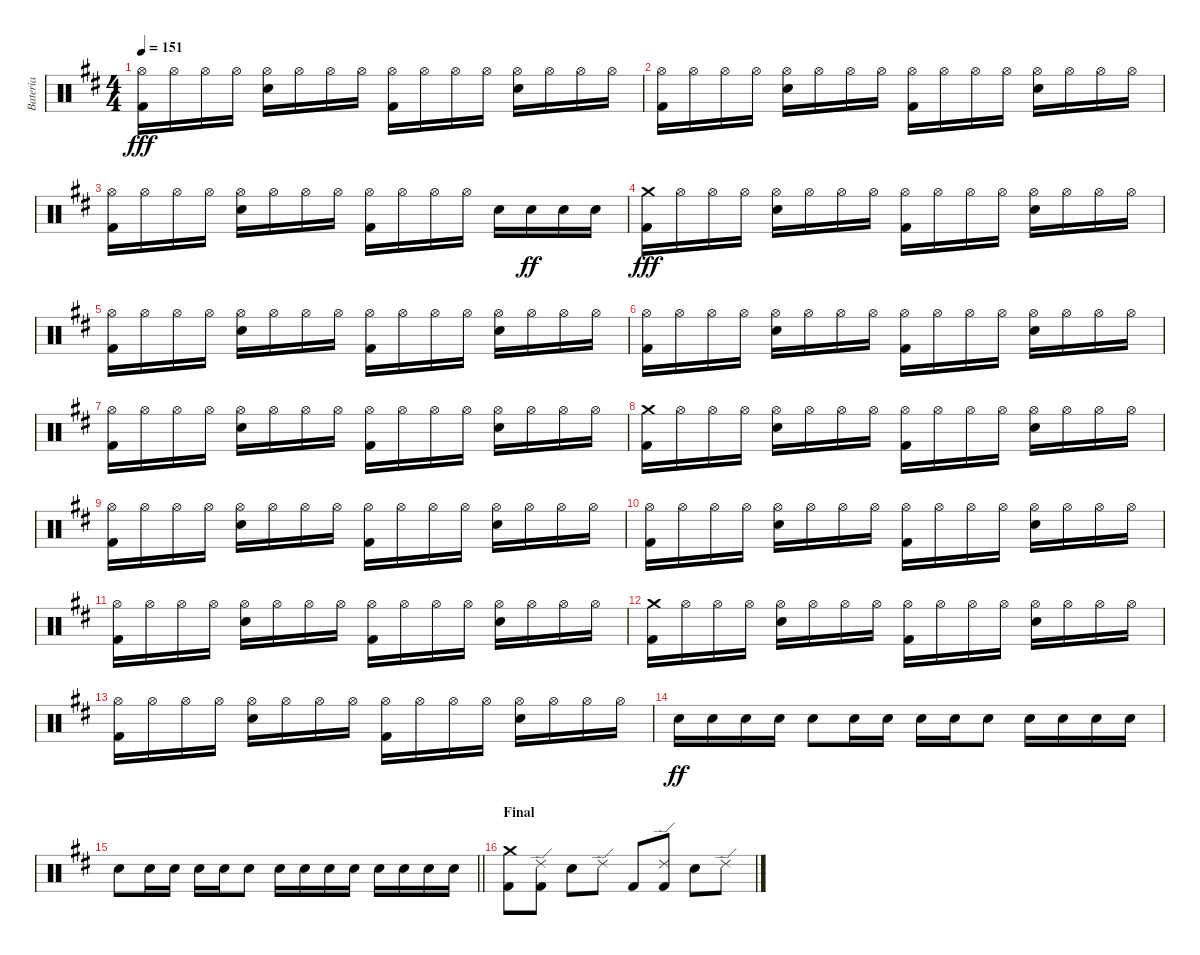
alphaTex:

\track ("Bateria " "Bateria ") {instrument percussion}
\staff {score}
\articulation defaults
\ts (4 4)
\tempo 151
\clef neutral
\ks d
("Hi-Hat (open)" "Kick (hit) 2").16{dy fff} "Hi-Hat (open)".16 "Hi-Hat (open)".16 "Hi-Hat (open)".16 ("Hi-Hat (open)" "Electric Snare (hit)").16 "Hi-Hat (open)".16 "Hi-Hat (open)".16 "Hi-Hat (open)".16 ("Hi-Hat (open)" "Kick (hit) 2").16 "Hi-Hat (open)".16 "Hi-Hat (open)".16 "Hi-Hat (open)".16 ("Hi-Hat (open)" "Electric Snare (hit)").16 "Hi-Hat (open)".16 "Hi-Hat (open)".16 "Hi-Hat (open)".16 |
("Hi-Hat (open)" "Kick (hit) 2").16 "Hi-Hat (open)".16 "Hi-Hat (open)".16 "Hi-Hat (open)".16 ("Hi-Hat (open)" "Electric Snare (hit)").16 "Hi-Hat (open)".16 "Hi-Hat (open)".16 "Hi-Hat (open)".16 ("Hi-Hat (open)" "Kick (hit) 2").16 "Hi-Hat (open)".16 "Hi-Hat (open)".16 "Hi-Hat (open)".16 ("Hi-Hat (open)" "Electric Snare (hit)").16 "Hi-Hat (open)".16 "Hi-Hat (open)".16 "Hi-Hat (open)".16 |
("Hi-Hat (open)" "Kick (hit) 2").16 "Hi-Hat (open)".16 "Hi-Hat (open)".16 "Hi-Hat (open)".16 ("Hi-Hat (open)" "Electric Snare (hit)").16 "Hi-Hat (open)".16 "Hi-Hat (open)".16 "Hi-Hat (open)".16 ("Hi-Hat (open)" "Kick (hit) 2").16 "Hi-Hat (open)".16 "Hi-Hat (open)".16 "Hi-Hat (open)".16 "Electric Snare (hit)".16 "Electric Snare (hit)".16{dy ff} "Electric Snare (hit)".16 "Electric Snare (hit)".16 |
("Crash medium (hit)" "Kick (hit) 2").16{dy fff} "Hi-Hat (open)".16 "Hi-Hat (open)".16 "Hi-Hat (open)".16 ("Hi-Hat (open)" "Electric Snare (hit)").16 "Hi-Hat (open)".16 "Hi-Hat (open)".16 "Hi-Hat (open)".16 ("Hi-Hat (open)" "Kick (hit) 2").16 "Hi-Hat (open)".16 "Hi-Hat (open)".16 "Hi-Hat (open)".16 ("Hi-Hat (open)" "Electric Snare (hit)").16 "Hi-Hat (open)".16 "Hi-Hat (open)".16 "Hi-Hat (open)".16 |
("Hi-Hat (open)" "Kick (hit) 2").16 "Hi-Hat (open)".16 "Hi-Hat (open)".16 "Hi-Hat (open)".16 ("Hi-Hat (open)" "Electric Snare (hit)").16 "Hi-Hat (open)".16 "Hi-Hat (open)".16 "Hi-Hat (open)".16 ("Hi-Hat (open)" "Kick (hit) 2").16 "Hi-Hat (open)".16 "Hi-Hat (open)".16 "Hi-Hat (open)".16 ("Hi-Hat (open)" "Electric Snare (hit)").16 "Hi-Hat (open)".16 "Hi-Hat (open)".16 "Hi-Hat (open)".16 |
("Hi-Hat (open)" "Kick (hit) 2").16 "Hi-Hat (open)".16 "Hi-Hat (open)".16 "Hi-Hat (open)".16 ("Hi-Hat (open)" "Electric Snare (hit)").16 "Hi-Hat (open)".16 "Hi-Hat (open)".16 "Hi-Hat (open)".16 ("Hi-Hat (open)" "Kick (hit) 2").16 "Hi-Hat (open)".16 "Hi-Hat (open)".16 "Hi-Hat (open)".16 ("Hi-Hat (open)" "Electric Snare (hit)").16 "Hi-Hat (open)".16 "Hi-Hat (open)".16 "Hi-Hat (open)".16 |
("Hi-Hat (open)" "Kick (hit) 2").16 "Hi-Hat (open)".16 "Hi-Hat (open)".16 "Hi-Hat (open)".16 ("Hi-Hat (open)" "Electric Snare (hit)").16 "Hi-Hat (open)".16 "Hi-Hat (open)".16 "Hi-Hat (open)".16 ("Hi-Hat (open)" "Kick (hit) 2").16 "Hi-Hat (open)".16 "Hi-Hat (open)".16 "Hi-Hat (open)".16 ("Hi-Hat (open)" "Electric Snare (hit)").16 "Hi-Hat (open)".16 "Hi-Hat (open)".16 "Hi-Hat (open)".16 |
("Crash medium (hit)" "Kick (hit) 2").16 "Hi-Hat (open)".16 "Hi-Hat (open)".16 "Hi-Hat (open)".16 ("Hi-Hat (open)" "Electric Snare (hit)").16 "Hi-Hat (open)".16 "Hi-Hat (open)".16 "Hi-Hat (open)".16 ("Hi-Hat (open)" "Kick (hit) 2").16 "Hi-Hat (open)".16 "Hi-Hat (open)".16 "Hi-Hat (open)".16 ("Hi-Hat (open)" "Electric Snare (hit)").16 "Hi-Hat (open)".16 "Hi-Hat (open)".16 "Hi-Hat (open)".16 |
("Hi-Hat (open)" "Kick (hit) 2").16 "Hi-Hat (open)".16 "Hi-Hat (open)".16 "Hi-Hat (open)".16 ("Hi-Hat (open)" "Electric Snare (hit)").16 "Hi-Hat (open)".16 "Hi-Hat (open)".16 "Hi-Hat (open)".16 ("Hi-Hat (open)" "Kick (hit) 2").16 "Hi-Hat (open)".16 "Hi-Hat (open)".16 "Hi-Hat (open)".16 ("Hi-Hat (open)" "Electric Snare (hit)").16 "Hi-Hat (open)".16 "Hi-Hat (open)".16 "Hi-Hat (open)".16 |
("Hi-Hat (open)" "Kick (hit) 2").16 "Hi-Hat (open)".16 "Hi-Hat (open)".16 "Hi-Hat (open)".16 ("Hi-Hat (open)" "Electric Snare (hit)").16 "Hi-Hat (open)".16 "Hi-Hat (open)".16 "Hi-Hat (open)".16 ("Hi-Hat (open)" "Kick (hit) 2").16 "Hi-Hat (open)".16 "Hi-Hat (open)".16 "Hi-Hat (open)".16 ("Hi-Hat (open)" "Electric Snare (hit)").16 "Hi-Hat (open)".16 "Hi-Hat (open)".16 "Hi-Hat (open)".16 |
("Hi-Hat (open)" "Kick (hit) 2").16 "Hi-Hat (open)".16 "Hi-Hat (open)".16 "Hi-Hat (open)".16 ("Hi-Hat (open)" "Electric Snare (hit)").16 "Hi-Hat (open)".16 "Hi-Hat (open)".16 "Hi-Hat (open)".16 ("Hi-Hat (open)" "Kick (hit) 2").16 "Hi-Hat (open)".16 "Hi-Hat (open)".16 "Hi-Hat (open)".16 ("Hi-Hat (open)" "Electric Snare (hit)").16 "Hi-Hat (open)".16 "Hi-Hat (open)".16 "Hi-Hat (open)".16 |
("Crash medium (hit)" "Kick (hit) 2").16 "Hi-Hat (open)".16 "Hi-Hat (open)".16 "Hi-Hat (open)".16 ("Hi-Hat (open)" "Electric Snare (hit)").16 "Hi-Hat (open)".16 "Hi-Hat (open)".16 "Hi-Hat (open)".16 ("Hi-Hat (open)" "Kick (hit) 2").16 "Hi-Hat (open)".16 "Hi-Hat (open)".16 "Hi-Hat (open)".16 ("Hi-Hat (open)" "Electric Snare (hit)").16 "Hi-Hat (open)".16 "Hi-Hat (open)".16 "Hi-Hat (open)".16 |
("Hi-Hat (open)" "Kick (hit) 2").16 "Hi-Hat (open)".16 "Hi-Hat (open)".16 "Hi-Hat (open)".16 ("Hi-Hat (open)" "Electric Snare (hit)").16 "Hi-Hat (open)".16 "Hi-Hat (open)".16 "Hi-Hat (open)".16 ("Hi-Hat (open)" "Kick (hit) 2").16 "Hi-Hat (open)".16 "Hi-Hat (open)".16 "Hi-Hat (open)".16 ("Hi-Hat (open)" "Electric Snare (hit)").16 "Hi-Hat (open)".16 "Hi-Hat (open)".16 "Hi-Hat (open)".16 |
"Electric Snare (hit)".16{dy ff} "Electric Snare (hit)".16 "Electric Snare (hit)".16 "Electric Snare (hit)".16 "Electric Snare (hit)".8 "Electric Snare (hit)".16 "Electric Snare (hit)".16 "Electric Snare (hit)".16 "Electric Snare (hit)".16 "Electric Snare (hit)".8 "Electric Snare (hit)".16 "Electric Snare (hit)".16 "Electric Snare (hit)".16 "Electric Snare (hit)".16 |
\barLineRight lightlight "Electric Snare (hit)".8 "Electric Snare (hit)".16 "Electric Snare (hit)".16 "Electric Snare (hit)".16 "Electric Snare (hit)".16 "Electric Snare (hit)".8 "Electric Snare (hit)".16 "Electric Snare (hit)".16 "Electric Snare (hit)".16 "Electric Snare (hit)".16 "Electric Snare (hit)".16 "Electric Snare (hit)".16 "Electric Snare (hit)".16 "Electric Snare (hit)".16
|
\section ("" "Final")
("Crash medium (hit)" "Kick (hit) 2").8 ("Ride (edge) 2" "Kick (hit) 2").8 "Electric Snare (hit)".8 "Ride (edge) 2".8 "Kick (hit) 2".8 ("Ride (edge) 2" "Kick (hit) 2").8 "Electric Snare (hit)".8 "Ride (edge) 2".8
